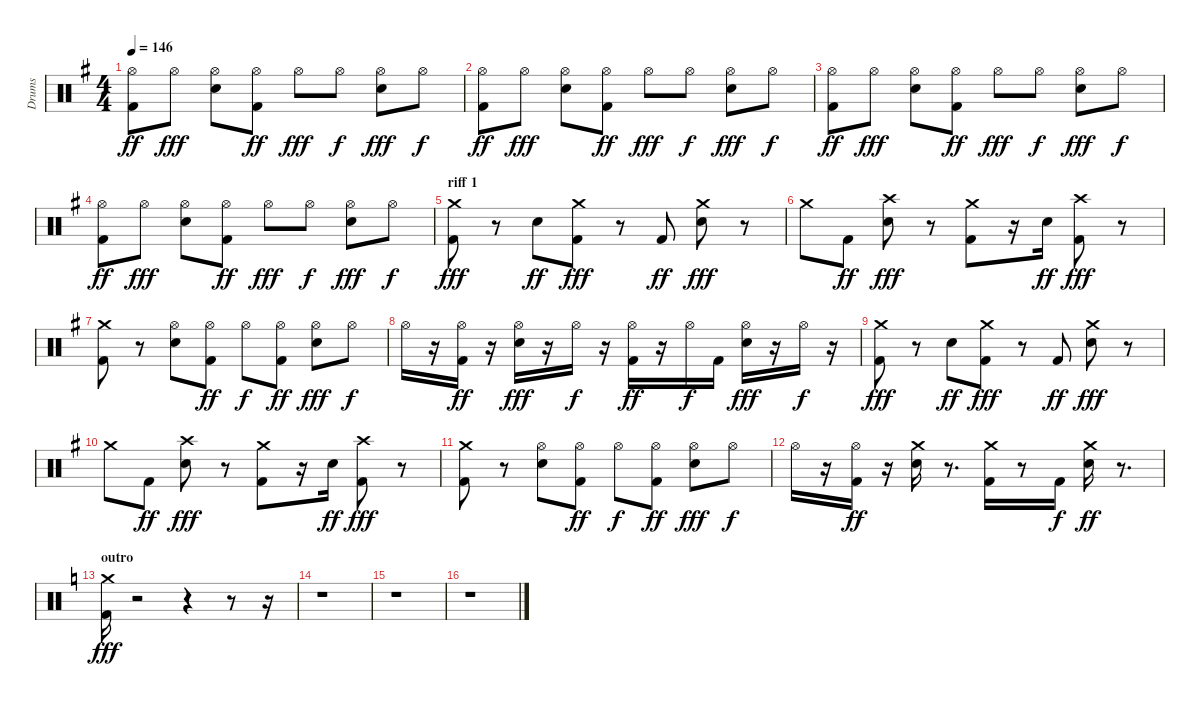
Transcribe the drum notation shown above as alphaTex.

\track ("Drums" "Drums") {instrument percussion}
\staff {score}
\articulation defaults
\ts (4 4)
\tempo 146
\clef neutral
\ks g
("Hi-Hat (open)" "Kick (hit) 2").8{dy ff} "Hi-Hat (open)".8{dy fff} ("Snare (hit) 2" "Hi-Hat (open)").8 ("Hi-Hat (open)" "Kick (hit) 2").8{dy ff} "Hi-Hat (open)".8{dy fff} "Hi-Hat (open)".8{dy f} ("Snare (hit) 2" "Hi-Hat (open)").8{dy fff} "Hi-Hat (open)".8{dy f} |
("Hi-Hat (open)" "Kick (hit) 2").8{dy ff} "Hi-Hat (open)".8{dy fff} ("Snare (hit) 2" "Hi-Hat (open)").8 ("Hi-Hat (open)" "Kick (hit) 2").8{dy ff} "Hi-Hat (open)".8{dy fff} "Hi-Hat (open)".8{dy f} ("Snare (hit) 2" "Hi-Hat (open)").8{dy fff} "Hi-Hat (open)".8{dy f} |
("Hi-Hat (open)" "Kick (hit) 2").8{dy ff} "Hi-Hat (open)".8{dy fff} ("Snare (hit) 2" "Hi-Hat (open)").8 ("Hi-Hat (open)" "Kick (hit) 2").8{dy ff} "Hi-Hat (open)".8{dy fff} "Hi-Hat (open)".8{dy f} ("Snare (hit) 2" "Hi-Hat (open)").8{dy fff} "Hi-Hat (open)".8{dy f} |
("Hi-Hat (open)" "Kick (hit) 2").8{dy ff} "Hi-Hat (open)".8{dy fff} ("Snare (hit) 2" "Hi-Hat (open)").8 ("Hi-Hat (open)" "Kick (hit) 2").8{dy ff} "Hi-Hat (open)".8{dy fff} "Hi-Hat (open)".8{dy f} ("Snare (hit) 2" "Hi-Hat (open)").8{dy fff} "Hi-Hat (open)".8{dy f} |
\section ("" "riff 1")
("Kick (hit) 2" "Crash medium (hit)").8{dy fff} r.8 "Snare (hit) 2".8{dy ff} ("Kick (hit) 2" "Crash medium (hit)").8{dy fff} r.8 "Kick (hit) 2".8{dy ff} ("Snare (hit) 2" "Crash medium (hit)").8{dy fff} r.8 |
"Crash medium (hit)".8 "Kick (hit) 2".8{dy ff} ("Snare (hit) 2" "Crash high (hit)").8{dy fff} r.8 ("Kick (hit) 2" "Crash medium (hit)").8 r.16 "Snare (hit) 2".16{dy ff} ("Kick (hit) 2" "Crash high (hit)").8{dy fff} r.8 |
("Kick (hit) 2" "Crash medium (hit)").8 r.8 ("Snare (hit) 2" "Hi-Hat (open)").8 ("Kick (hit) 2" "Hi-Hat (open)").8{dy ff} "Hi-Hat (open)".8{dy f} ("Kick (hit) 2" "Hi-Hat (open)").8{dy ff} ("Snare (hit) 2" "Hi-Hat (open)").8{dy fff} "Hi-Hat (open)".8{dy f} |
"Hi-Hat (open)".16 r.16 ("Kick (hit) 2" "Hi-Hat (open)").16{dy ff} r.16 ("Snare (hit) 2" "Hi-Hat (open)").16{dy fff} r.16 "Hi-Hat (open)".16{dy f} r.16 ("Kick (hit) 2" "Hi-Hat (open)").16{dy ff} r.16 "Hi-Hat (open)".16{dy f} "Kick (hit) 2".16 ("Snare (hit) 2" "Hi-Hat (open)").16{dy fff} r.16 "Hi-Hat (open)".16{dy f} r.16 |
("Kick (hit) 2" "Crash medium (hit)").8{dy fff} r.8 "Snare (hit) 2".8{dy ff} ("Kick (hit) 2" "Crash medium (hit)").8{dy fff} r.8 "Kick (hit) 2".8{dy ff} ("Snare (hit) 2" "Crash medium (hit)").8{dy fff} r.8 |
"Crash medium (hit)".8 "Kick (hit) 2".8{dy ff} ("Snare (hit) 2" "Crash high (hit)").8{dy fff} r.8 ("Kick (hit) 2" "Crash medium (hit)").8 r.16 "Snare (hit) 2".16{dy ff} ("Kick (hit) 2" "Crash high (hit)").8{dy fff} r.8 |
("Kick (hit) 2" "Crash medium (hit)").8 r.8 ("Snare (hit) 2" "Hi-Hat (open)").8 ("Kick (hit) 2" "Hi-Hat (open)").8{dy ff} "Hi-Hat (open)".8{dy f} ("Kick (hit) 2" "Hi-Hat (open)").8{dy ff} ("Snare (hit) 2" "Hi-Hat (open)").8{dy fff} "Hi-Hat (open)".8{dy f} |
"Hi-Hat (open)".16 r.16 ("Kick (hit) 2" "Hi-Hat (open)").16{dy ff} r.16 ("Crash medium (hit)" "Snare (hit) 2").16 r.8{d} ("Crash medium (hit)" "Kick (hit) 2").16 r.8 "Kick (hit) 2".16{dy f} ("Crash medium (hit)" "Snare (hit) 2").16{dy ff} r.8{d} |
\section ("" "outro")
\ks c
("Kick (hit) 2" "Crash medium (hit)").16{dy fff} r.2 r.4 r.8 r.16 |
r.1 |
r.1 |
r.1
